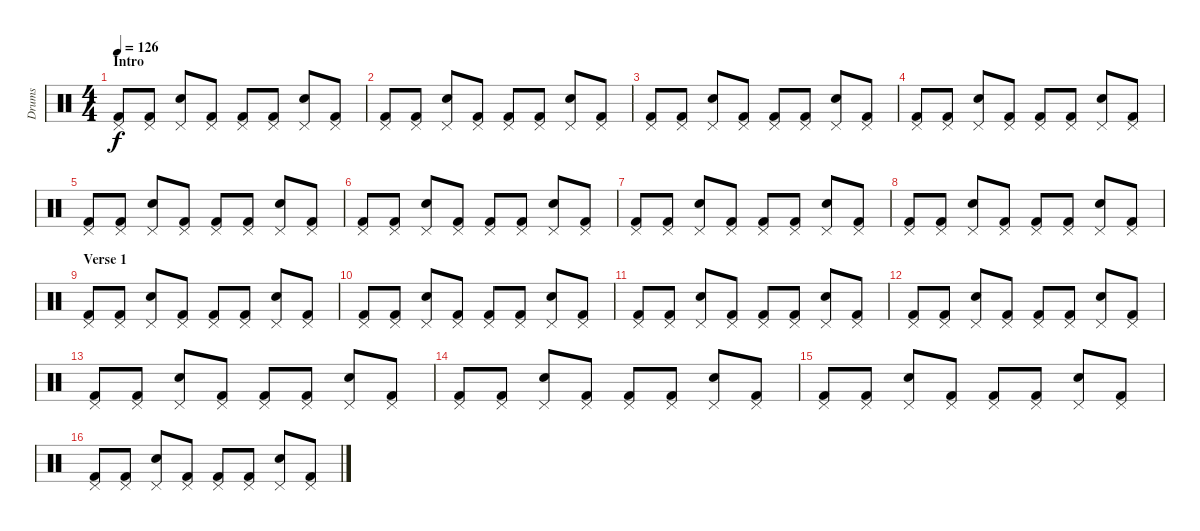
\track ("Drums" "Drums") {instrument percussion}
\staff {score}
\articulation defaults
\ts (4 4)
\section ("" "Intro")
\tempo 126
\clef neutral
\ks c
("Kick (hit) 2" "Pedal Hi-Hat (hit)").8{dy f} ("Kick (hit) 2" "Pedal Hi-Hat (hit)").8 ("Snare (hit) 2" "Pedal Hi-Hat (hit)").8 ("Kick (hit) 2" "Pedal Hi-Hat (hit)").8 ("Kick (hit) 2" "Pedal Hi-Hat (hit)").8 ("Kick (hit) 2" "Pedal Hi-Hat (hit)").8 ("Snare (hit) 2" "Pedal Hi-Hat (hit)").8 ("Kick (hit) 2" "Pedal Hi-Hat (hit)").8 |
("Kick (hit) 2" "Pedal Hi-Hat (hit)").8 ("Kick (hit) 2" "Pedal Hi-Hat (hit)").8 ("Snare (hit) 2" "Pedal Hi-Hat (hit)").8 ("Kick (hit) 2" "Pedal Hi-Hat (hit)").8 ("Kick (hit) 2" "Pedal Hi-Hat (hit)").8 ("Kick (hit) 2" "Pedal Hi-Hat (hit)").8 ("Snare (hit) 2" "Pedal Hi-Hat (hit)").8 ("Kick (hit) 2" "Pedal Hi-Hat (hit)").8 |
("Kick (hit) 2" "Pedal Hi-Hat (hit)").8 ("Kick (hit) 2" "Pedal Hi-Hat (hit)").8 ("Snare (hit) 2" "Pedal Hi-Hat (hit)").8 ("Kick (hit) 2" "Pedal Hi-Hat (hit)").8 ("Kick (hit) 2" "Pedal Hi-Hat (hit)").8 ("Kick (hit) 2" "Pedal Hi-Hat (hit)").8 ("Snare (hit) 2" "Pedal Hi-Hat (hit)").8 ("Kick (hit) 2" "Pedal Hi-Hat (hit)").8 |
("Kick (hit) 2" "Pedal Hi-Hat (hit)").8 ("Kick (hit) 2" "Pedal Hi-Hat (hit)").8 ("Snare (hit) 2" "Pedal Hi-Hat (hit)").8 ("Kick (hit) 2" "Pedal Hi-Hat (hit)").8 ("Kick (hit) 2" "Pedal Hi-Hat (hit)").8 ("Kick (hit) 2" "Pedal Hi-Hat (hit)").8 ("Snare (hit) 2" "Pedal Hi-Hat (hit)").8 ("Kick (hit) 2" "Pedal Hi-Hat (hit)").8 |
("Kick (hit) 2" "Pedal Hi-Hat (hit)").8 ("Kick (hit) 2" "Pedal Hi-Hat (hit)").8 ("Snare (hit) 2" "Pedal Hi-Hat (hit)").8 ("Kick (hit) 2" "Pedal Hi-Hat (hit)").8 ("Kick (hit) 2" "Pedal Hi-Hat (hit)").8 ("Kick (hit) 2" "Pedal Hi-Hat (hit)").8 ("Snare (hit) 2" "Pedal Hi-Hat (hit)").8 ("Kick (hit) 2" "Pedal Hi-Hat (hit)").8 |
("Kick (hit) 2" "Pedal Hi-Hat (hit)").8 ("Kick (hit) 2" "Pedal Hi-Hat (hit)").8 ("Snare (hit) 2" "Pedal Hi-Hat (hit)").8 ("Kick (hit) 2" "Pedal Hi-Hat (hit)").8 ("Kick (hit) 2" "Pedal Hi-Hat (hit)").8 ("Kick (hit) 2" "Pedal Hi-Hat (hit)").8 ("Snare (hit) 2" "Pedal Hi-Hat (hit)").8 ("Kick (hit) 2" "Pedal Hi-Hat (hit)").8 |
("Kick (hit) 2" "Pedal Hi-Hat (hit)").8 ("Kick (hit) 2" "Pedal Hi-Hat (hit)").8 ("Snare (hit) 2" "Pedal Hi-Hat (hit)").8 ("Kick (hit) 2" "Pedal Hi-Hat (hit)").8 ("Kick (hit) 2" "Pedal Hi-Hat (hit)").8 ("Kick (hit) 2" "Pedal Hi-Hat (hit)").8 ("Snare (hit) 2" "Pedal Hi-Hat (hit)").8 ("Kick (hit) 2" "Pedal Hi-Hat (hit)").8 |
("Kick (hit) 2" "Pedal Hi-Hat (hit)").8 ("Kick (hit) 2" "Pedal Hi-Hat (hit)").8 ("Snare (hit) 2" "Pedal Hi-Hat (hit)").8 ("Kick (hit) 2" "Pedal Hi-Hat (hit)").8 ("Kick (hit) 2" "Pedal Hi-Hat (hit)").8 ("Kick (hit) 2" "Pedal Hi-Hat (hit)").8 ("Snare (hit) 2" "Pedal Hi-Hat (hit)").8 ("Kick (hit) 2" "Pedal Hi-Hat (hit)").8 |
\section ("" "Verse 1")
("Kick (hit) 2" "Pedal Hi-Hat (hit)").8 ("Kick (hit) 2" "Pedal Hi-Hat (hit)").8 ("Snare (hit) 2" "Pedal Hi-Hat (hit)").8 ("Kick (hit) 2" "Pedal Hi-Hat (hit)").8 ("Kick (hit) 2" "Pedal Hi-Hat (hit)").8 ("Kick (hit) 2" "Pedal Hi-Hat (hit)").8 ("Snare (hit) 2" "Pedal Hi-Hat (hit)").8 ("Kick (hit) 2" "Pedal Hi-Hat (hit)").8 |
("Kick (hit) 2" "Pedal Hi-Hat (hit)").8 ("Kick (hit) 2" "Pedal Hi-Hat (hit)").8 ("Snare (hit) 2" "Pedal Hi-Hat (hit)").8 ("Kick (hit) 2" "Pedal Hi-Hat (hit)").8 ("Kick (hit) 2" "Pedal Hi-Hat (hit)").8 ("Kick (hit) 2" "Pedal Hi-Hat (hit)").8 ("Snare (hit) 2" "Pedal Hi-Hat (hit)").8 ("Kick (hit) 2" "Pedal Hi-Hat (hit)").8 |
("Kick (hit) 2" "Pedal Hi-Hat (hit)").8 ("Kick (hit) 2" "Pedal Hi-Hat (hit)").8 ("Snare (hit) 2" "Pedal Hi-Hat (hit)").8 ("Kick (hit) 2" "Pedal Hi-Hat (hit)").8 ("Kick (hit) 2" "Pedal Hi-Hat (hit)").8 ("Kick (hit) 2" "Pedal Hi-Hat (hit)").8 ("Snare (hit) 2" "Pedal Hi-Hat (hit)").8 ("Kick (hit) 2" "Pedal Hi-Hat (hit)").8 |
("Kick (hit) 2" "Pedal Hi-Hat (hit)").8 ("Kick (hit) 2" "Pedal Hi-Hat (hit)").8 ("Snare (hit) 2" "Pedal Hi-Hat (hit)").8 ("Kick (hit) 2" "Pedal Hi-Hat (hit)").8 ("Kick (hit) 2" "Pedal Hi-Hat (hit)").8 ("Kick (hit) 2" "Pedal Hi-Hat (hit)").8 ("Snare (hit) 2" "Pedal Hi-Hat (hit)").8 ("Kick (hit) 2" "Pedal Hi-Hat (hit)").8 |
("Kick (hit) 2" "Pedal Hi-Hat (hit)").8 ("Kick (hit) 2" "Pedal Hi-Hat (hit)").8 ("Snare (hit) 2" "Pedal Hi-Hat (hit)").8 ("Kick (hit) 2" "Pedal Hi-Hat (hit)").8 ("Kick (hit) 2" "Pedal Hi-Hat (hit)").8 ("Kick (hit) 2" "Pedal Hi-Hat (hit)").8 ("Snare (hit) 2" "Pedal Hi-Hat (hit)").8 ("Kick (hit) 2" "Pedal Hi-Hat (hit)").8 |
("Kick (hit) 2" "Pedal Hi-Hat (hit)").8 ("Kick (hit) 2" "Pedal Hi-Hat (hit)").8 ("Snare (hit) 2" "Pedal Hi-Hat (hit)").8 ("Kick (hit) 2" "Pedal Hi-Hat (hit)").8 ("Kick (hit) 2" "Pedal Hi-Hat (hit)").8 ("Kick (hit) 2" "Pedal Hi-Hat (hit)").8 ("Snare (hit) 2" "Pedal Hi-Hat (hit)").8 ("Kick (hit) 2" "Pedal Hi-Hat (hit)").8 |
("Kick (hit) 2" "Pedal Hi-Hat (hit)").8 ("Kick (hit) 2" "Pedal Hi-Hat (hit)").8 ("Snare (hit) 2" "Pedal Hi-Hat (hit)").8 ("Kick (hit) 2" "Pedal Hi-Hat (hit)").8 ("Kick (hit) 2" "Pedal Hi-Hat (hit)").8 ("Kick (hit) 2" "Pedal Hi-Hat (hit)").8 ("Snare (hit) 2" "Pedal Hi-Hat (hit)").8 ("Kick (hit) 2" "Pedal Hi-Hat (hit)").8 |
("Kick (hit) 2" "Pedal Hi-Hat (hit)").8 ("Kick (hit) 2" "Pedal Hi-Hat (hit)").8 ("Snare (hit) 2" "Pedal Hi-Hat (hit)").8 ("Kick (hit) 2" "Pedal Hi-Hat (hit)").8 ("Kick (hit) 2" "Pedal Hi-Hat (hit)").8 ("Kick (hit) 2" "Pedal Hi-Hat (hit)").8 ("Snare (hit) 2" "Pedal Hi-Hat (hit)").8 ("Kick (hit) 2" "Pedal Hi-Hat (hit)").8
